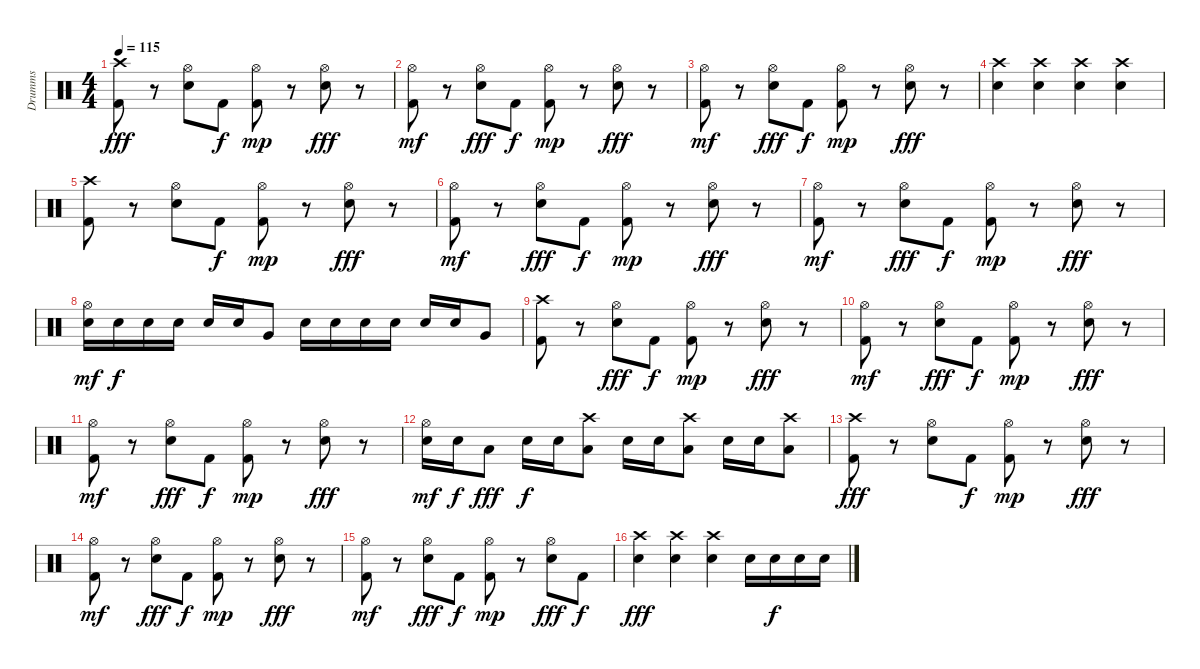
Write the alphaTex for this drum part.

\track ("Drumms" "Drumms") {instrument percussion}
\staff {score}
\articulation defaults
\ts (4 4)
\tempo 115
\clef neutral
\ks c
("Crash high (hit)" "Kick (hit) 2").8{dy fff} r.8 ("Hi-Hat (open)" "Snare (hit) 2").8 "Kick (hit) 2".8{dy f} ("Hi-Hat (open)" "Kick (hit) 2").8{dy mp} r.8 ("Hi-Hat (open)" "Snare (hit) 2").8{dy fff} r.8 |
("Hi-Hat (open)" "Kick (hit) 2").8{dy mf} r.8 ("Hi-Hat (open)" "Snare (hit) 2").8{dy fff} "Kick (hit) 2".8{dy f} ("Hi-Hat (open)" "Kick (hit) 2").8{dy mp} r.8 ("Hi-Hat (open)" "Snare (hit) 2").8{dy fff} r.8 |
("Hi-Hat (open)" "Kick (hit) 2").8{dy mf} r.8 ("Hi-Hat (open)" "Snare (hit) 2").8{dy fff} "Kick (hit) 2".8{dy f} ("Hi-Hat (open)" "Kick (hit) 2").8{dy mp} r.8 ("Hi-Hat (open)" "Snare (hit) 2").8{dy fff} r.8 |
("Crash high (hit)" "Snare (hit) 2").4 ("Crash high (hit)" "Snare (hit) 2").4 ("Crash high (hit)" "Snare (hit) 2").4 ("Crash high (hit)" "Snare (hit) 2").4 |
("Crash high (hit)" "Kick (hit) 2").8 r.8 ("Hi-Hat (open)" "Snare (hit) 2").8 "Kick (hit) 2".8{dy f} ("Hi-Hat (open)" "Kick (hit) 2").8{dy mp} r.8 ("Hi-Hat (open)" "Snare (hit) 2").8{dy fff} r.8 |
("Hi-Hat (open)" "Kick (hit) 2").8{dy mf} r.8 ("Hi-Hat (open)" "Snare (hit) 2").8{dy fff} "Kick (hit) 2".8{dy f} ("Hi-Hat (open)" "Kick (hit) 2").8{dy mp} r.8 ("Hi-Hat (open)" "Snare (hit) 2").8{dy fff} r.8 |
("Hi-Hat (open)" "Kick (hit) 2").8{dy mf} r.8 ("Hi-Hat (open)" "Snare (hit) 2").8{dy fff} "Kick (hit) 2".8{dy f} ("Hi-Hat (open)" "Kick (hit) 2").8{dy mp} r.8 ("Hi-Hat (open)" "Snare (hit) 2").8{dy fff} r.8 |
("Hi-Hat (open)" "Electric Snare (hit)").16{dy mf} "Electric Snare (hit)".16{dy f} "Electric Snare (hit)".16 "Electric Snare (hit)".16 "Electric Snare (hit)".16 "Electric Snare (hit)".16 "Very Low Tom (hit)".8 "Electric Snare (hit)".16 "Electric Snare (hit)".16 "Electric Snare (hit)".16 "Electric Snare (hit)".16 "Electric Snare (hit)".16 "Electric Snare (hit)".16 "Very Low Tom (hit)".8 |
("Crash high (hit)" "Kick (hit) 2").8 r.8 ("Hi-Hat (open)" "Snare (hit) 2").8{dy fff} "Kick (hit) 2".8{dy f} ("Hi-Hat (open)" "Kick (hit) 2").8{dy mp} r.8 ("Hi-Hat (open)" "Snare (hit) 2").8{dy fff} r.8 |
("Hi-Hat (open)" "Kick (hit) 2").8{dy mf} r.8 ("Hi-Hat (open)" "Snare (hit) 2").8{dy fff} "Kick (hit) 2".8{dy f} ("Hi-Hat (open)" "Kick (hit) 2").8{dy mp} r.8 ("Hi-Hat (open)" "Snare (hit) 2").8{dy fff} r.8 |
("Hi-Hat (open)" "Kick (hit) 2").8{dy mf} r.8 ("Hi-Hat (open)" "Snare (hit) 2").8{dy fff} "Kick (hit) 2".8{dy f} ("Hi-Hat (open)" "Kick (hit) 2").8{dy mp} r.8 ("Hi-Hat (open)" "Snare (hit) 2").8{dy fff} r.8 |
("Hi-Hat (open)" "Electric Snare (hit)").16{dy mf} "Electric Snare (hit)".16{dy f} "Low Tom (hit)".8{dy fff} "Electric Snare (hit)".16{dy f} "Electric Snare (hit)".16 ("Crash high (hit)" "Low Tom (hit)").8 "Electric Snare (hit)".16 "Electric Snare (hit)".16 ("Crash high (hit)" "Low Tom (hit)").8 "Electric Snare (hit)".16 "Electric Snare (hit)".16 ("Crash high (hit)" "Low Tom (hit)").8 |
("Crash high (hit)" "Kick (hit) 2").8{dy fff} r.8 ("Hi-Hat (open)" "Snare (hit) 2").8 "Kick (hit) 2".8{dy f} ("Hi-Hat (open)" "Kick (hit) 2").8{dy mp} r.8 ("Hi-Hat (open)" "Snare (hit) 2").8{dy fff} r.8 |
("Hi-Hat (open)" "Kick (hit) 2").8{dy mf} r.8 ("Hi-Hat (open)" "Snare (hit) 2").8{dy fff} "Kick (hit) 2".8{dy f} ("Hi-Hat (open)" "Kick (hit) 2").8{dy mp} r.8 ("Hi-Hat (open)" "Snare (hit) 2").8{dy fff} r.8 |
("Hi-Hat (open)" "Kick (hit) 2").8{dy mf} r.8 ("Hi-Hat (open)" "Snare (hit) 2").8{dy fff} "Kick (hit) 2".8{dy f} ("Hi-Hat (open)" "Kick (hit) 2").8{dy mp} r.8 ("Hi-Hat (open)" "Snare (hit) 2").8{dy fff} "Kick (hit) 2".8{dy f} |
("Crash high (hit)" "Snare (hit) 2").4{dy fff} ("Crash high (hit)" "Snare (hit) 2").4 ("Crash high (hit)" "Snare (hit) 2").4 "Snare (hit) 2".16 "Snare (hit) 2".16{dy f} "Snare (hit) 2".16 "Snare (hit) 2".16
